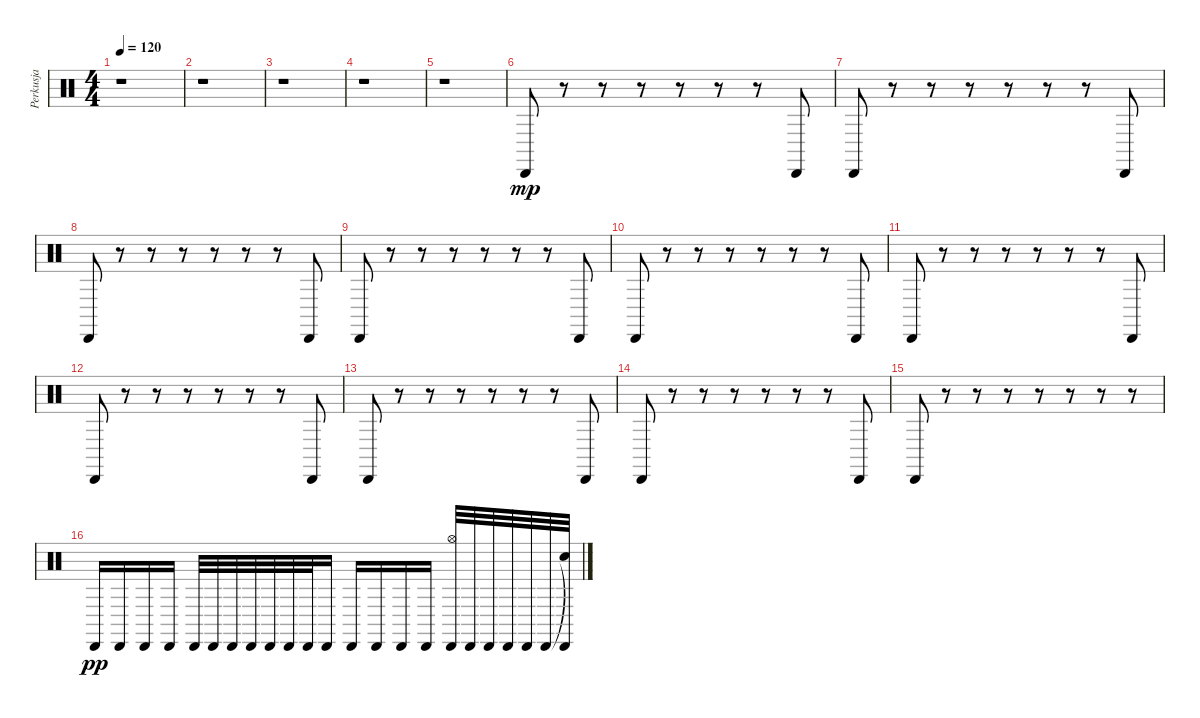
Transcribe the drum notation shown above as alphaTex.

\track ("Perkusja" "Perkusja") {instrument percussion}
\staff {score}
\articulation defaults
\ts (4 4)
\tempo 120
\clef neutral
\ks c
r.1{dy mp} |
r.1 |
r.1 |
r.1 |
r.1 |
"Cabasa (hit)".8 r.8 r.8 r.8 r.8 r.8 r.8 "Cabasa (hit)".8 |
"Cabasa (hit)".8 r.8 r.8 r.8 r.8 r.8 r.8 "Cabasa (hit)".8 |
"Cabasa (hit)".8 r.8 r.8 r.8 r.8 r.8 r.8 "Cabasa (hit)".8 |
"Cabasa (hit)".8 r.8 r.8 r.8 r.8 r.8 r.8 "Cabasa (hit)".8 |
"Cabasa (hit)".8 r.8 r.8 r.8 r.8 r.8 r.8 "Cabasa (hit)".8 |
"Cabasa (hit)".8 r.8 r.8 r.8 r.8 r.8 r.8 "Cabasa (hit)".8 |
"Cabasa (hit)".8 r.8 r.8 r.8 r.8 r.8 r.8 "Cabasa (hit)".8 |
"Cabasa (hit)".8 r.8 r.8 r.8 r.8 r.8 r.8 "Cabasa (hit)".8 |
"Cabasa (hit)".8 r.8 r.8 r.8 r.8 r.8 r.8 "Cabasa (hit)".8 |
"Cabasa (hit)".8 r.8 r.8 r.8 r.8 r.8 r.8 r.8 |
"Cabasa (hit)".16{dy pp} "Cabasa (hit)".16 "Cabasa (hit)".16 "Cabasa (hit)".16 "Cabasa (hit)".32 "Cabasa (hit)".32 "Cabasa (hit)".32 "Cabasa (hit)".32 "Cabasa (hit)".32 "Cabasa (hit)".32 "Cabasa (hit)".32 "Cabasa (hit)".16 "Cabasa (hit)".16 "Cabasa (hit)".16 "Cabasa (hit)".16 "Cabasa (hit)".16 ("Hi-Hat (open)" "Cabasa (hit)").32 "Cabasa (hit)".32 "Cabasa (hit)".32 "Cabasa (hit)".32 "Cabasa (hit)".32 "Cabasa (hit)".32 ("Snare (hit)"{t} "Cabasa (hit)").32
